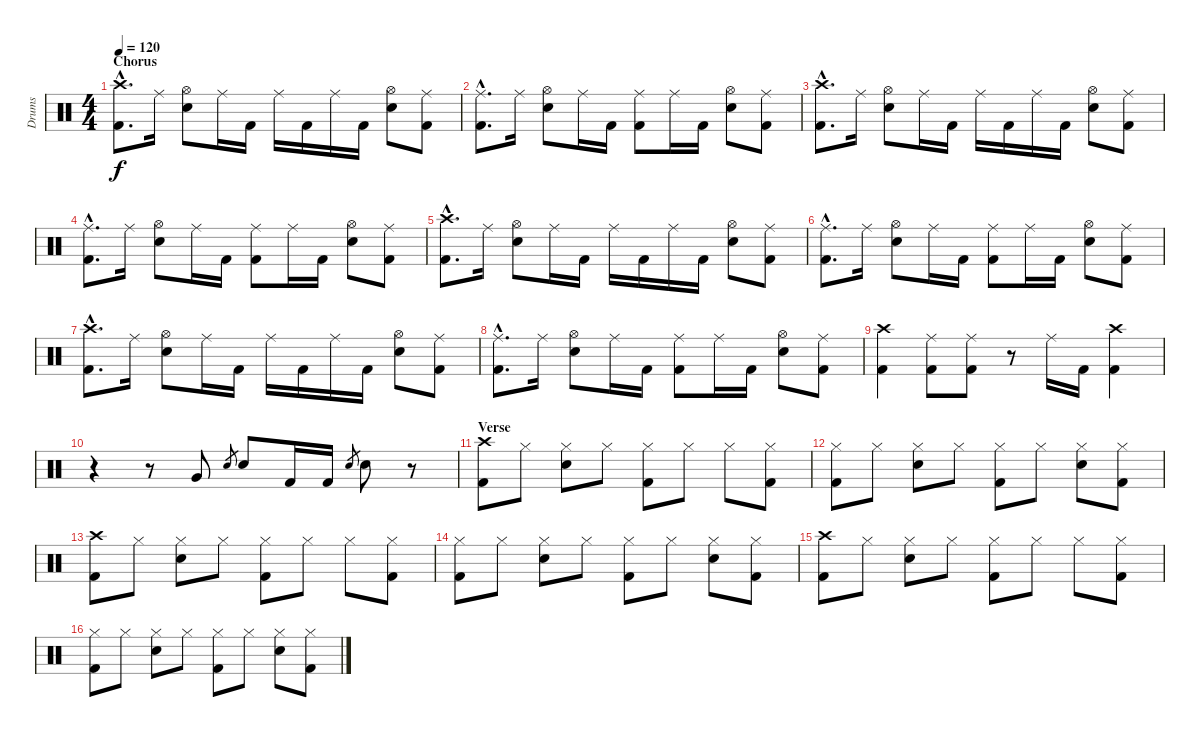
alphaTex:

\track ("Drums" "Drums") {instrument percussion}
\staff {score}
\articulation defaults
\ts (4 4)
\section ("" "Chorus")
\tempo 120
\clef neutral
\ks c
("Crash high (hit)"{hac} "Kick (hit) 2"{hac}).8{d dy f} "Ride (middle)".16 ("Hi-Hat (open)" "Electric Snare (hit)").8 "Ride (middle)".16 "Kick (hit) 2".16 "Ride (middle)".16 "Kick (hit) 2".16 "Ride (middle)".16 "Kick (hit) 2".16 ("Hi-Hat (open)" "Electric Snare (hit)").8 ("Ride (middle)" "Kick (hit) 2").8 |
("Ride (middle)"{hac} "Kick (hit) 2"{hac}).8{d} "Ride (middle)".16 ("Hi-Hat (open)" "Electric Snare (hit)").8 "Ride (middle)".16 "Kick (hit) 2".16 ("Ride (middle)" "Kick (hit) 2").8 "Ride (middle)".16 "Kick (hit) 2".16 ("Hi-Hat (open)" "Electric Snare (hit)").8 ("Ride (middle)" "Kick (hit) 2").8 |
("Crash high (hit)"{hac} "Kick (hit) 2"{hac}).8{d} "Ride (middle)".16 ("Hi-Hat (open)" "Electric Snare (hit)").8 "Ride (middle)".16 "Kick (hit) 2".16 "Ride (middle)".16 "Kick (hit) 2".16 "Ride (middle)".16 "Kick (hit) 2".16 ("Hi-Hat (open)" "Electric Snare (hit)").8 ("Ride (middle)" "Kick (hit) 2").8 |
("Ride (middle)"{hac} "Kick (hit) 2"{hac}).8{d} "Ride (middle)".16 ("Hi-Hat (open)" "Electric Snare (hit)").8 "Ride (middle)".16 "Kick (hit) 2".16 ("Ride (middle)" "Kick (hit) 2").8 "Ride (middle)".16 "Kick (hit) 2".16 ("Hi-Hat (open)" "Electric Snare (hit)").8 ("Ride (middle)" "Kick (hit) 2").8 |
("Crash high (hit)"{hac} "Kick (hit) 2"{hac}).8{d} "Ride (middle)".16 ("Hi-Hat (open)" "Electric Snare (hit)").8 "Ride (middle)".16 "Kick (hit) 2".16 "Ride (middle)".16 "Kick (hit) 2".16 "Ride (middle)".16 "Kick (hit) 2".16 ("Hi-Hat (open)" "Electric Snare (hit)").8 ("Ride (middle)" "Kick (hit) 2").8 |
("Ride (middle)"{hac} "Kick (hit) 2"{hac}).8{d} "Ride (middle)".16 ("Hi-Hat (open)" "Electric Snare (hit)").8 "Ride (middle)".16 "Kick (hit) 2".16 ("Ride (middle)" "Kick (hit) 2").8 "Ride (middle)".16 "Kick (hit) 2".16 ("Hi-Hat (open)" "Electric Snare (hit)").8 ("Ride (middle)" "Kick (hit) 2").8 |
("Crash high (hit)"{hac} "Kick (hit) 2"{hac}).8{d} "Ride (middle)".16 ("Hi-Hat (open)" "Electric Snare (hit)").8 "Ride (middle)".16 "Kick (hit) 2".16 "Ride (middle)".16 "Kick (hit) 2".16 "Ride (middle)".16 "Kick (hit) 2".16 ("Hi-Hat (open)" "Electric Snare (hit)").8 ("Ride (middle)" "Kick (hit) 2").8 |
("Ride (middle)"{hac} "Kick (hit) 2"{hac}).8{d} "Ride (middle)".16 ("Hi-Hat (open)" "Electric Snare (hit)").8 "Ride (middle)".16 "Kick (hit) 2".16 ("Ride (middle)" "Kick (hit) 2").8 "Ride (middle)".16 "Kick (hit) 2".16 ("Hi-Hat (open)" "Electric Snare (hit)").8 ("Ride (middle)" "Kick (hit) 2").8 |
("Crash high (hit)" "Kick (hit) 2").4 ("Ride (middle)" "Kick (hit) 2").8 ("Ride (middle)" "Kick (hit) 2").8 r.8 "Ride (middle)".16 "Kick (hit) 2".16 ("Crash high (hit)" "Kick (hit) 2").4 |
r.4 r.8 "Very Low Tom (hit)".8 "Electric Snare (hit)".8{gr} "Electric Snare (hit)".8 "Kick (hit) 2".16 "Kick (hit) 2".16 "Electric Snare (hit)".8{gr} "Electric Snare (hit)".8 r.8 |
\section ("" "Verse")
("Crash high (hit)" "Kick (hit) 2").8 "Hi-Hat (closed)".8 ("Hi-Hat (closed)" "Electric Snare (hit)").8 "Hi-Hat (closed)".8 ("Hi-Hat (closed)" "Kick (hit) 2").8 "Hi-Hat (closed)".8 "Hi-Hat (closed)".8 ("Hi-Hat (closed)" "Kick (hit) 2").8 |
("Hi-Hat (closed)" "Kick (hit) 2").8 "Hi-Hat (closed)".8 ("Hi-Hat (closed)" "Electric Snare (hit)").8 "Hi-Hat (closed)".8 ("Hi-Hat (closed)" "Kick (hit) 2").8 "Hi-Hat (closed)".8 ("Hi-Hat (closed)" "Electric Snare (hit)").8 ("Hi-Hat (closed)" "Kick (hit) 2").8 |
("Crash high (hit)" "Kick (hit) 2").8 "Hi-Hat (closed)".8 ("Hi-Hat (closed)" "Electric Snare (hit)").8 "Hi-Hat (closed)".8 ("Hi-Hat (closed)" "Kick (hit) 2").8 "Hi-Hat (closed)".8 "Hi-Hat (closed)".8 ("Hi-Hat (closed)" "Kick (hit) 2").8 |
("Hi-Hat (closed)" "Kick (hit) 2").8 "Hi-Hat (closed)".8 ("Hi-Hat (closed)" "Electric Snare (hit)").8 "Hi-Hat (closed)".8 ("Hi-Hat (closed)" "Kick (hit) 2").8 "Hi-Hat (closed)".8 ("Hi-Hat (closed)" "Electric Snare (hit)").8 ("Hi-Hat (closed)" "Kick (hit) 2").8 |
("Crash high (hit)" "Kick (hit) 2").8 "Hi-Hat (closed)".8 ("Hi-Hat (closed)" "Electric Snare (hit)").8 "Hi-Hat (closed)".8 ("Hi-Hat (closed)" "Kick (hit) 2").8 "Hi-Hat (closed)".8 "Hi-Hat (closed)".8 ("Hi-Hat (closed)" "Kick (hit) 2").8 |
("Hi-Hat (closed)" "Kick (hit) 2").8 "Hi-Hat (closed)".8 ("Hi-Hat (closed)" "Electric Snare (hit)").8 "Hi-Hat (closed)".8 ("Hi-Hat (closed)" "Kick (hit) 2").8 "Hi-Hat (closed)".8 ("Hi-Hat (closed)" "Electric Snare (hit)").8 ("Hi-Hat (closed)" "Kick (hit) 2").8
